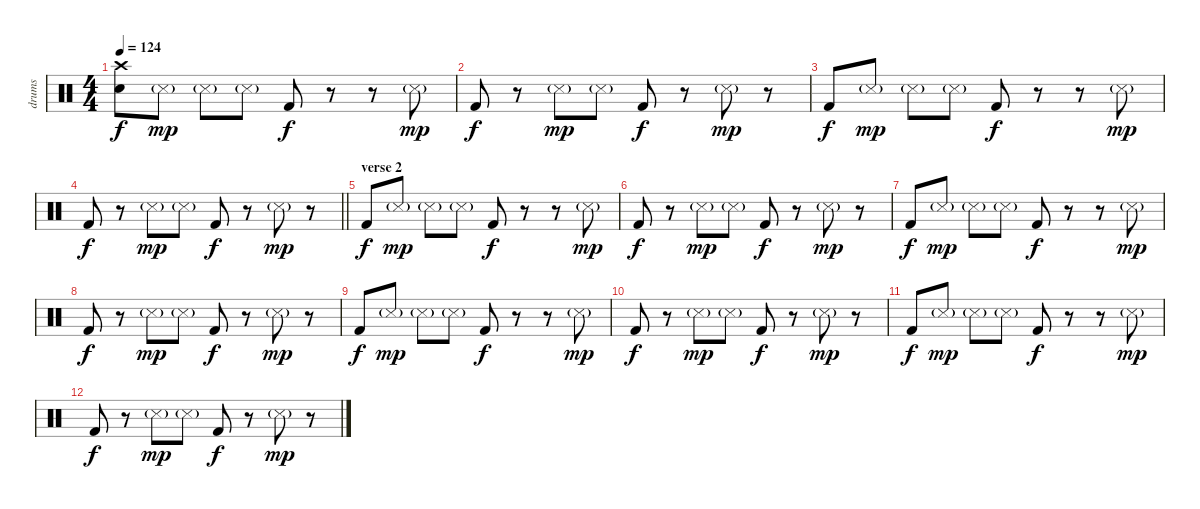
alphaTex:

\track ("drums" "drums") {instrument percussion}
\staff {score}
\articulation defaults
\ts (4 4)
\tempo 124
\clef neutral
\ks c
("Electric Snare (hit)" "Crash high (hit)").8{dy f} "Snare (side stick) 3"{g}.8{dy mp} "Snare (side stick) 3"{g}.8 "Snare (side stick) 3"{g}.8 "Kick (hit) 2".8{dy f} r.8 r.8 "Snare (side stick) 3"{g}.8{dy mp} |
"Kick (hit) 2".8{dy f} r.8 "Snare (side stick) 3"{g}.8{dy mp} "Snare (side stick) 3"{g}.8 "Kick (hit) 2".8{dy f} r.8 "Snare (side stick) 3"{g}.8{dy mp} r.8 |
"Kick (hit) 2".8{dy f} "Snare (side stick) 3"{g}.8{dy mp} "Snare (side stick) 3"{g}.8 "Snare (side stick) 3"{g}.8 "Kick (hit) 2".8{dy f} r.8 r.8 "Snare (side stick) 3"{g}.8{dy mp} |
\barLineRight lightlight "Kick (hit) 2".8{dy f}
r.8 "Snare (side stick) 3"{g}.8{dy mp} "Snare (side stick) 3"{g}.8 "Kick (hit) 2".8{dy f} r.8 "Snare (side stick) 3"{g}.8{dy mp} r.8 |
\section ("" "verse 2")
"Kick (hit) 2".8{dy f} "Snare (side stick) 3"{g}.8{dy mp} "Snare (side stick) 3"{g}.8 "Snare (side stick) 3"{g}.8 "Kick (hit) 2".8{dy f} r.8 r.8 "Snare (side stick) 3"{g}.8{dy mp} |
"Kick (hit) 2".8{dy f} r.8 "Snare (side stick) 3"{g}.8{dy mp} "Snare (side stick) 3"{g}.8 "Kick (hit) 2".8{dy f} r.8 "Snare (side stick) 3"{g}.8{dy mp} r.8 |
"Kick (hit) 2".8{dy f} "Snare (side stick) 3"{g}.8{dy mp} "Snare (side stick) 3"{g}.8 "Snare (side stick) 3"{g}.8 "Kick (hit) 2".8{dy f} r.8 r.8 "Snare (side stick) 3"{g}.8{dy mp} |
"Kick (hit) 2".8{dy f} r.8 "Snare (side stick) 3"{g}.8{dy mp} "Snare (side stick) 3"{g}.8 "Kick (hit) 2".8{dy f} r.8 "Snare (side stick) 3"{g}.8{dy mp} r.8 |
"Kick (hit) 2".8{dy f} "Snare (side stick) 3"{g}.8{dy mp} "Snare (side stick) 3"{g}.8 "Snare (side stick) 3"{g}.8 "Kick (hit) 2".8{dy f} r.8 r.8 "Snare (side stick) 3"{g}.8{dy mp} |
"Kick (hit) 2".8{dy f} r.8 "Snare (side stick) 3"{g}.8{dy mp} "Snare (side stick) 3"{g}.8 "Kick (hit) 2".8{dy f} r.8 "Snare (side stick) 3"{g}.8{dy mp} r.8 |
"Kick (hit) 2".8{dy f} "Snare (side stick) 3"{g}.8{dy mp} "Snare (side stick) 3"{g}.8 "Snare (side stick) 3"{g}.8 "Kick (hit) 2".8{dy f} r.8 r.8 "Snare (side stick) 3"{g}.8{dy mp} |
"Kick (hit) 2".8{dy f} r.8 "Snare (side stick) 3"{g}.8{dy mp} "Snare (side stick) 3"{g}.8 "Kick (hit) 2".8{dy f} r.8 "Snare (side stick) 3"{g}.8{dy mp} r.8
